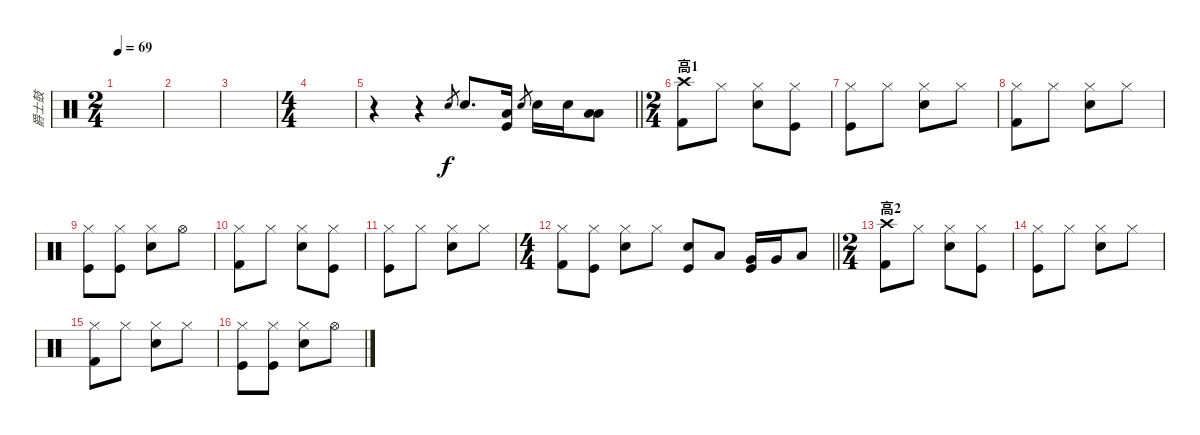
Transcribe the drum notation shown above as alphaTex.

\track ("爵士鼓" "爵士鼓") {instrument percussion}
\staff {score}
\articulation defaults
\ts (2 4)
\tempo 69
\clef neutral
\ks c
|
|
|
\ts (4 4)
|
\barLineRight lightlight
r.4 r.4 "Snare (hit) 2".8{gr} "Snare (hit) 2".8{d} ("Low Tom (hit)" "Kick (hit)").16 "Snare (hit) 2".8{gr} "Snare (hit) 2".16 "Snare (hit) 2".16 ("Low Tom (hit)" "Low Floor Tom (hit)").8 |
\ts (2 4)
\section ("" "高1")
("Crash high (hit)" "Kick (hit) 2").8 "Hi-Hat (closed)".8 ("Hi-Hat (closed)" "Snare (hit) 2").8 ("Hi-Hat (closed)" "Kick (hit)").8 |
("Hi-Hat (closed)" "Kick (hit)").8 "Hi-Hat (closed)".8 ("Hi-Hat (closed)" "Snare (hit) 2").8 "Hi-Hat (closed)".8 |
("Hi-Hat (closed)" "Kick (hit) 2").8 "Hi-Hat (closed)".8 ("Hi-Hat (closed)" "Snare (hit) 2").8 "Hi-Hat (closed)".8 |
("Hi-Hat (closed)" "Kick (hit)").8 ("Hi-Hat (closed)" "Kick (hit)").8 ("Hi-Hat (closed)" "Snare (hit) 2").8 "Hi-Hat (open)".8 |
("Hi-Hat (closed)" "Kick (hit) 2").8 "Hi-Hat (closed)".8 ("Hi-Hat (closed)" "Snare (hit) 2").8 ("Hi-Hat (closed)" "Kick (hit)").8 |
("Hi-Hat (closed)" "Kick (hit)").8 "Hi-Hat (closed)".8 ("Hi-Hat (closed)" "Snare (hit) 2").8 "Hi-Hat (closed)".8 |
\ts (4 4)
\barLineRight lightlight
("Hi-Hat (closed)" "Kick (hit) 2").8 ("Hi-Hat (closed)" "Kick (hit)").8 ("Hi-Hat (closed)" "Snare (hit) 2").8 "Hi-Hat (closed)".8 ("Snare (hit) 2" "Kick (hit)").8 "Low Tom (hit)".8 ("Very Low Tom (hit)" "Kick (hit)").16 "Very Low Tom (hit)".16 "Low Floor Tom (hit)".8 |
\ts (2 4)
\section ("" "高2")
("Crash high (hit)" "Kick (hit) 2").8 "Hi-Hat (closed)".8 ("Hi-Hat (closed)" "Snare (hit) 2").8 ("Hi-Hat (closed)" "Kick (hit)").8 |
("Hi-Hat (closed)" "Kick (hit)").8 "Hi-Hat (closed)".8 ("Hi-Hat (closed)" "Snare (hit) 2").8 "Hi-Hat (closed)".8 |
("Hi-Hat (closed)" "Kick (hit) 2").8 "Hi-Hat (closed)".8 ("Hi-Hat (closed)" "Snare (hit) 2").8 "Hi-Hat (closed)".8 |
("Hi-Hat (closed)" "Kick (hit)").8 ("Hi-Hat (closed)" "Kick (hit)").8 ("Hi-Hat (closed)" "Snare (hit) 2").8 "Hi-Hat (open)".8
